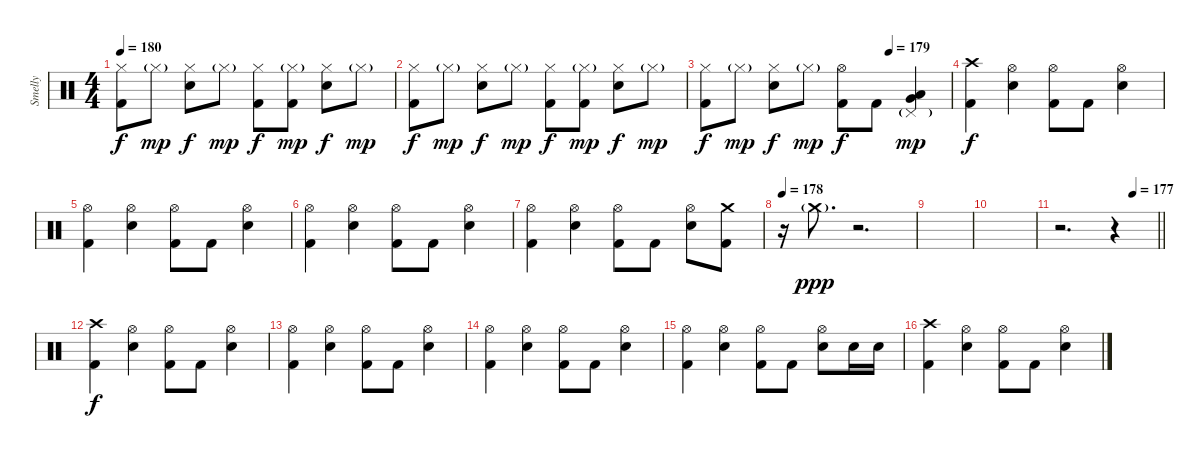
\track ("Smelly" "Smelly") {instrument percussion}
\staff {score}
\articulation defaults
\ts (4 4)
\tempo 180
\clef neutral
\ks c
("Hi-Hat (closed)" "Kick (hit) 2").8{dy f} "Hi-Hat (closed)"{g}.8{dy mp} ("Hi-Hat (closed)" "Electric Snare (hit)").8{dy f} "Hi-Hat (closed)"{g}.8{dy mp} ("Hi-Hat (closed)" "Kick (hit) 2").8{dy f} ("Hi-Hat (closed)"{g} "Kick (hit) 2").8{dy mp} ("Hi-Hat (closed)" "Electric Snare (hit)").8{dy f} "Hi-Hat (closed)"{g}.8{dy mp} |
("Hi-Hat (closed)" "Kick (hit) 2").8{dy f} "Hi-Hat (closed)"{g}.8{dy mp} ("Hi-Hat (closed)" "Electric Snare (hit)").8{dy f} "Hi-Hat (closed)"{g}.8{dy mp} ("Hi-Hat (closed)" "Kick (hit) 2").8{dy f} ("Hi-Hat (closed)"{g} "Kick (hit) 2").8{dy mp} ("Hi-Hat (closed)" "Electric Snare (hit)").8{dy f} "Hi-Hat (closed)"{g}.8{dy mp} |
\tempo (179 0.75)
("Hi-Hat (closed)" "Kick (hit) 2").8{dy f} "Hi-Hat (closed)"{g}.8{dy mp} ("Hi-Hat (closed)" "Electric Snare (hit)").8{dy f} "Hi-Hat (closed)"{g}.8{dy mp} ("Hi-Hat (open)" "Kick (hit) 2").8{dy f} "Kick (hit) 2".8 ("Pedal Hi-Hat (hit)"{g} "Very Low Tom (hit)" "Low Floor Tom (hit)").4{dy mp} |
("Crash high (hit)" "Kick (hit) 2").4{dy f} ("Hi-Hat (open)" "Electric Snare (hit)").4 ("Hi-Hat (open)" "Kick (hit) 2").8 "Kick (hit) 2".8 ("Hi-Hat (open)" "Electric Snare (hit)").4 |
("Hi-Hat (open)" "Kick (hit) 2").4 ("Hi-Hat (open)" "Electric Snare (hit)").4 ("Hi-Hat (open)" "Kick (hit) 2").8 "Kick (hit) 2".8 ("Hi-Hat (open)" "Electric Snare (hit)").4 |
("Hi-Hat (open)" "Kick (hit) 2").4 ("Hi-Hat (open)" "Electric Snare (hit)").4 ("Hi-Hat (open)" "Kick (hit) 2").8 "Kick (hit) 2".8 ("Hi-Hat (open)" "Electric Snare (hit)").4 |
("Hi-Hat (open)" "Kick (hit) 2").4 ("Hi-Hat (open)" "Electric Snare (hit)").4 ("Hi-Hat (open)" "Kick (hit) 2").8 "Kick (hit) 2".8 ("Hi-Hat (open)" "Electric Snare (hit)").8 ("Crash medium (hit)" "Kick (hit) 2").8 |
\tempo 178
r.16 "Crash medium (hit)"{g}.8{d dy ppp} r.2{d} |
|
|
\tempo (177 0.75)
\barLineRight lightlight
r.2{d} r.4 |
\section ("" "")
("Crash high (hit)" "Kick (hit) 2").4{dy f} ("Hi-Hat (open)" "Electric Snare (hit)").4 ("Hi-Hat (open)" "Kick (hit) 2").8 "Kick (hit) 2".8 ("Hi-Hat (open)" "Electric Snare (hit)").4 |
("Hi-Hat (open)" "Kick (hit) 2").4 ("Hi-Hat (open)" "Electric Snare (hit)").4 ("Hi-Hat (open)" "Kick (hit) 2").8 "Kick (hit) 2".8 ("Hi-Hat (open)" "Electric Snare (hit)").4 |
("Hi-Hat (open)" "Kick (hit) 2").4 ("Hi-Hat (open)" "Electric Snare (hit)").4 ("Hi-Hat (open)" "Kick (hit) 2").8 "Kick (hit) 2".8 ("Hi-Hat (open)" "Electric Snare (hit)").4 |
("Hi-Hat (open)" "Kick (hit) 2").4 ("Hi-Hat (open)" "Electric Snare (hit)").4 ("Hi-Hat (open)" "Kick (hit) 2").8 "Kick (hit) 2".8 ("Hi-Hat (open)" "Electric Snare (hit)").8 "Electric Snare (hit)".16 "Electric Snare (hit)".16 |
("Crash high (hit)" "Kick (hit) 2").4 ("Hi-Hat (open)" "Electric Snare (hit)").4 ("Hi-Hat (open)" "Kick (hit) 2").8 "Kick (hit) 2".8 ("Hi-Hat (open)" "Electric Snare (hit)").4
